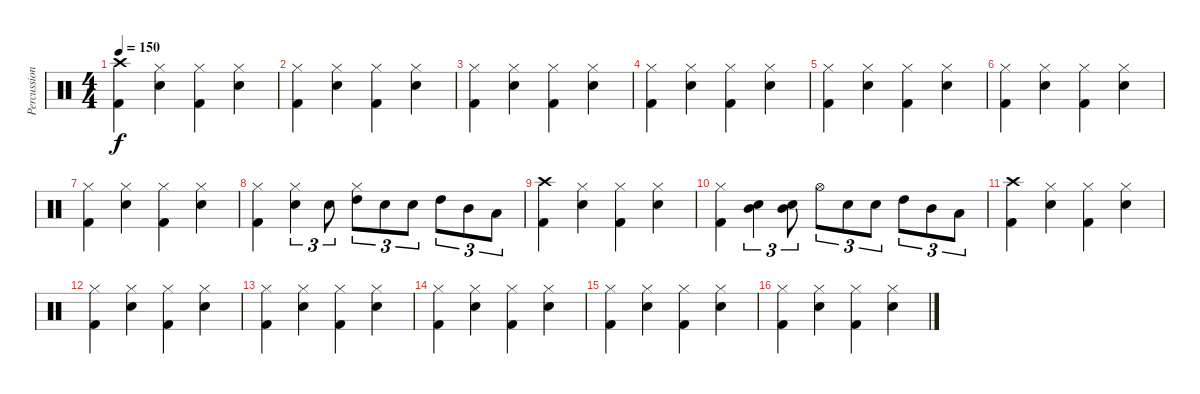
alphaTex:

\track ("Percussion" "Percussion") {instrument percussion}
\staff {score}
\articulation defaults
\ts (4 4)
\tempo 150
\clef neutral
\ks c
("Crash high (hit)" "Kick (hit) 2").4{dy f} ("Hi-Hat (closed)" "Electric Snare (hit)").4 ("Hi-Hat (closed)" "Kick (hit) 2").4 ("Hi-Hat (closed)" "Electric Snare (hit)").4 |
("Hi-Hat (closed)" "Kick (hit) 2").4 ("Hi-Hat (closed)" "Electric Snare (hit)").4 ("Hi-Hat (closed)" "Kick (hit) 2").4 ("Hi-Hat (closed)" "Electric Snare (hit)").4 |
("Hi-Hat (closed)" "Kick (hit) 2").4 ("Hi-Hat (closed)" "Electric Snare (hit)").4 ("Hi-Hat (closed)" "Kick (hit) 2").4 ("Hi-Hat (closed)" "Electric Snare (hit)").4 |
("Hi-Hat (closed)" "Kick (hit) 2").4 ("Hi-Hat (closed)" "Electric Snare (hit)").4 ("Hi-Hat (closed)" "Kick (hit) 2").4 ("Hi-Hat (closed)" "Electric Snare (hit)").4 |
("Hi-Hat (closed)" "Kick (hit) 2").4 ("Hi-Hat (closed)" "Electric Snare (hit)").4 ("Hi-Hat (closed)" "Kick (hit) 2").4 ("Hi-Hat (closed)" "Electric Snare (hit)").4 |
("Hi-Hat (closed)" "Kick (hit) 2").4 ("Hi-Hat (closed)" "Electric Snare (hit)").4 ("Hi-Hat (closed)" "Kick (hit) 2").4 ("Hi-Hat (closed)" "Electric Snare (hit)").4 |
("Hi-Hat (closed)" "Kick (hit) 2").4 ("Hi-Hat (closed)" "Electric Snare (hit)").4 ("Hi-Hat (closed)" "Kick (hit) 2").4 ("Hi-Hat (closed)" "Electric Snare (hit)").4 |
("Hi-Hat (closed)" "Kick (hit) 2").4 ("Hi-Hat (closed)" "Electric Snare (hit)").4{tu (3 2)} "Electric Snare (hit)".8{tu (3 2)} ("Hi-Hat (closed)" "High Tom (hit)").8{tu (3 2)} "Electric Snare (hit)".8{tu (3 2)} "Electric Snare (hit)".8{tu (3 2)} "High Tom (hit)".8{tu (3 2)} "Mid Tom (hit)".8{tu (3 2)} "Low Tom (hit)".8{tu (3 2)} |
("Crash high (hit)" "Kick (hit) 2").4 ("Hi-Hat (closed)" "Electric Snare (hit)").4 ("Hi-Hat (closed)" "Kick (hit) 2").4 ("Hi-Hat (closed)" "Electric Snare (hit)").4 |
("Hi-Hat (closed)" "Kick (hit) 2").4 ("Mid Tom (hit)" "Electric Snare (hit)").4{tu (3 2)} ("Mid Tom (hit)" "Electric Snare (hit)").8{tu (3 2)} "Hi-Hat (open)".8{tu (3 2)} "Electric Snare (hit)".8{tu (3 2)} "Electric Snare (hit)".8{tu (3 2)} "High Tom (hit)".8{tu (3 2)} "Mid Tom (hit)".8{tu (3 2)} "Low Tom (hit)".8{tu (3 2)} |
("Crash high (hit)" "Kick (hit) 2").4 ("Hi-Hat (closed)" "Electric Snare (hit)").4 ("Hi-Hat (closed)" "Kick (hit) 2").4 ("Hi-Hat (closed)" "Electric Snare (hit)").4 |
("Hi-Hat (closed)" "Kick (hit) 2").4 ("Hi-Hat (closed)" "Electric Snare (hit)").4 ("Hi-Hat (closed)" "Kick (hit) 2").4 ("Hi-Hat (closed)" "Electric Snare (hit)").4 |
("Hi-Hat (closed)" "Kick (hit) 2").4 ("Hi-Hat (closed)" "Electric Snare (hit)").4 ("Hi-Hat (closed)" "Kick (hit) 2").4 ("Hi-Hat (closed)" "Electric Snare (hit)").4 |
("Hi-Hat (closed)" "Kick (hit) 2").4 ("Hi-Hat (closed)" "Electric Snare (hit)").4 ("Hi-Hat (closed)" "Kick (hit) 2").4 ("Hi-Hat (closed)" "Electric Snare (hit)").4 |
("Hi-Hat (closed)" "Kick (hit) 2").4 ("Hi-Hat (closed)" "Electric Snare (hit)").4 ("Hi-Hat (closed)" "Kick (hit) 2").4 ("Hi-Hat (closed)" "Electric Snare (hit)").4 |
("Hi-Hat (closed)" "Kick (hit) 2").4 ("Hi-Hat (closed)" "Electric Snare (hit)").4 ("Hi-Hat (closed)" "Kick (hit) 2").4 ("Hi-Hat (closed)" "Electric Snare (hit)").4
